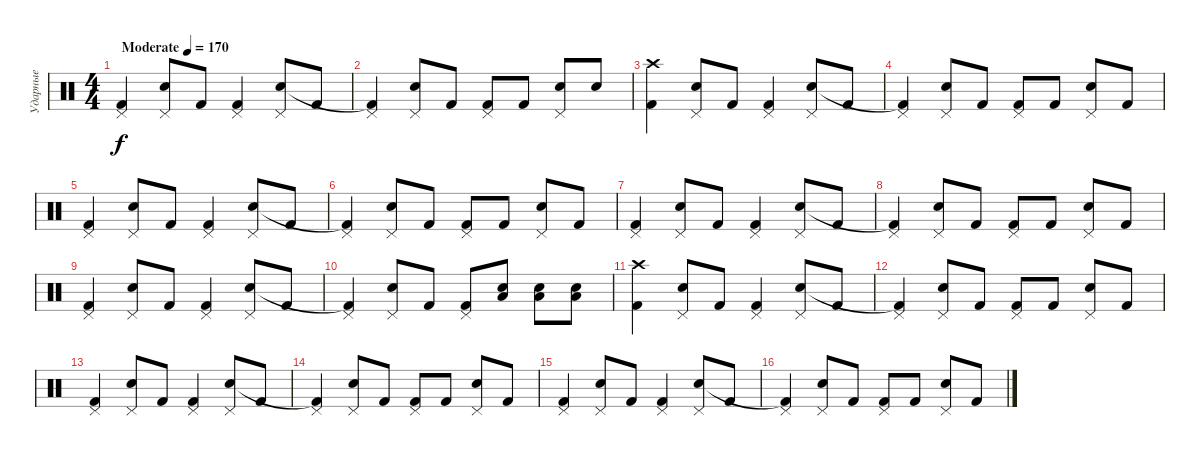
\track ("Ударные" "Ударные") {instrument percussion}
\staff {score}
\articulation defaults
\ts (4 4)
\tempo (170 "Moderate")
\clef neutral
\ks c
("Pedal Hi-Hat (hit)" "Kick (hit) 2").4{dy f} ("Pedal Hi-Hat (hit)" "Snare (hit) 2").8 "Kick (hit) 2".8 ("Pedal Hi-Hat (hit)" "Kick (hit) 2").4 ("Pedal Hi-Hat (hit)" "Snare (hit) 2").8 "Kick (hit) 2".8 |
("Pedal Hi-Hat (hit)" "Kick (hit) 2"{t}).4 ("Pedal Hi-Hat (hit)" "Snare (hit) 2").8 "Kick (hit) 2".8 ("Pedal Hi-Hat (hit)" "Kick (hit) 2").8 "Kick (hit) 2".8 ("Pedal Hi-Hat (hit)" "Snare (hit) 2").8 "Snare (hit) 2".8 |
("Crash high (hit)" "Kick (hit) 2").4 ("Pedal Hi-Hat (hit)" "Snare (hit) 2").8 "Kick (hit) 2".8 ("Pedal Hi-Hat (hit)" "Kick (hit) 2").4 ("Pedal Hi-Hat (hit)" "Snare (hit) 2").8 "Kick (hit) 2".8 |
("Pedal Hi-Hat (hit)" "Kick (hit) 2"{t}).4 ("Pedal Hi-Hat (hit)" "Snare (hit) 2").8 "Kick (hit) 2".8 ("Pedal Hi-Hat (hit)" "Kick (hit) 2").8 "Kick (hit) 2".8 ("Pedal Hi-Hat (hit)" "Snare (hit) 2").8 "Kick (hit) 2".8 |
("Pedal Hi-Hat (hit)" "Kick (hit) 2").4 ("Pedal Hi-Hat (hit)" "Snare (hit) 2").8 "Kick (hit) 2".8 ("Pedal Hi-Hat (hit)" "Kick (hit) 2").4 ("Pedal Hi-Hat (hit)" "Snare (hit) 2").8 "Kick (hit) 2".8 |
("Pedal Hi-Hat (hit)" "Kick (hit) 2"{t}).4 ("Pedal Hi-Hat (hit)" "Snare (hit) 2").8 "Kick (hit) 2".8 ("Pedal Hi-Hat (hit)" "Kick (hit) 2").8 "Kick (hit) 2".8 ("Pedal Hi-Hat (hit)" "Snare (hit) 2").8 "Kick (hit) 2".8 |
("Pedal Hi-Hat (hit)" "Kick (hit) 2").4 ("Pedal Hi-Hat (hit)" "Snare (hit) 2").8 "Kick (hit) 2".8 ("Pedal Hi-Hat (hit)" "Kick (hit) 2").4 ("Pedal Hi-Hat (hit)" "Snare (hit) 2").8 "Kick (hit) 2".8 |
("Pedal Hi-Hat (hit)" "Kick (hit) 2"{t}).4 ("Pedal Hi-Hat (hit)" "Snare (hit) 2").8 "Kick (hit) 2".8 ("Pedal Hi-Hat (hit)" "Kick (hit) 2").8 "Kick (hit) 2".8 ("Pedal Hi-Hat (hit)" "Snare (hit) 2").8 "Kick (hit) 2".8 |
("Pedal Hi-Hat (hit)" "Kick (hit) 2").4 ("Pedal Hi-Hat (hit)" "Snare (hit) 2").8 "Kick (hit) 2".8 ("Pedal Hi-Hat (hit)" "Kick (hit) 2").4 ("Pedal Hi-Hat (hit)" "Snare (hit) 2").8 "Kick (hit) 2".8 |
("Pedal Hi-Hat (hit)" "Kick (hit) 2"{t}).4 ("Pedal Hi-Hat (hit)" "Snare (hit) 2").8 "Kick (hit) 2".8 ("Pedal Hi-Hat (hit)" "Kick (hit) 2").8 ("Snare (hit) 2" "Low Floor Tom (hit)").8 ("Snare (hit) 2" "Low Floor Tom (hit)").8 ("Snare (hit) 2" "Low Floor Tom (hit)").8 |
("Crash high (hit)" "Kick (hit) 2").4 ("Pedal Hi-Hat (hit)" "Snare (hit) 2").8 "Kick (hit) 2".8 ("Pedal Hi-Hat (hit)" "Kick (hit) 2").4 ("Pedal Hi-Hat (hit)" "Snare (hit) 2").8 "Kick (hit) 2".8 |
("Pedal Hi-Hat (hit)" "Kick (hit) 2"{t}).4 ("Pedal Hi-Hat (hit)" "Snare (hit) 2").8 "Kick (hit) 2".8 ("Pedal Hi-Hat (hit)" "Kick (hit) 2").8 "Kick (hit) 2".8 ("Pedal Hi-Hat (hit)" "Snare (hit) 2").8 "Kick (hit) 2".8 |
("Pedal Hi-Hat (hit)" "Kick (hit) 2").4 ("Pedal Hi-Hat (hit)" "Snare (hit) 2").8 "Kick (hit) 2".8 ("Pedal Hi-Hat (hit)" "Kick (hit) 2").4 ("Pedal Hi-Hat (hit)" "Snare (hit) 2").8 "Kick (hit) 2".8 |
("Pedal Hi-Hat (hit)" "Kick (hit) 2"{t}).4 ("Pedal Hi-Hat (hit)" "Snare (hit) 2").8 "Kick (hit) 2".8 ("Pedal Hi-Hat (hit)" "Kick (hit) 2").8 "Kick (hit) 2".8 ("Pedal Hi-Hat (hit)" "Snare (hit) 2").8 "Kick (hit) 2".8 |
("Pedal Hi-Hat (hit)" "Kick (hit) 2").4 ("Pedal Hi-Hat (hit)" "Snare (hit) 2").8 "Kick (hit) 2".8 ("Pedal Hi-Hat (hit)" "Kick (hit) 2").4 ("Pedal Hi-Hat (hit)" "Snare (hit) 2").8 "Kick (hit) 2".8 |
("Pedal Hi-Hat (hit)" "Kick (hit) 2"{t}).4 ("Pedal Hi-Hat (hit)" "Snare (hit) 2").8 "Kick (hit) 2".8 ("Pedal Hi-Hat (hit)" "Kick (hit) 2").8 "Kick (hit) 2".8 ("Pedal Hi-Hat (hit)" "Snare (hit) 2").8 "Kick (hit) 2".8
